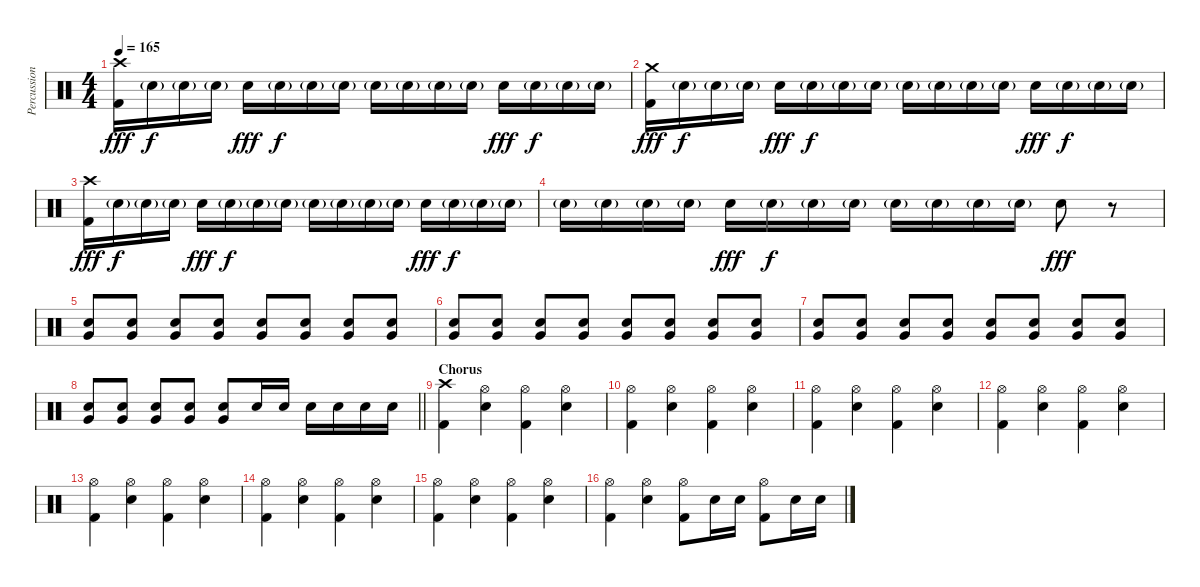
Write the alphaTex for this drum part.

\track ("Percussion" "Percussion") {instrument percussion}
\staff {score}
\articulation defaults
\ts (4 4)
\tempo 165
\clef neutral
\ks c
("Crash high (hit)" "Kick (hit) 2").16{dy fff} "Electric Snare (hit)"{g}.16{dy f} "Electric Snare (hit)"{g}.16 "Electric Snare (hit)"{g}.16 "Electric Snare (hit)".16{dy fff} "Electric Snare (hit)"{g}.16{dy f} "Electric Snare (hit)"{g}.16 "Electric Snare (hit)"{g}.16 "Electric Snare (hit)"{g}.16 "Electric Snare (hit)"{g}.16 "Electric Snare (hit)"{g}.16 "Electric Snare (hit)"{g}.16 "Electric Snare (hit)".16{dy fff} "Electric Snare (hit)"{g}.16{dy f} "Electric Snare (hit)"{g}.16 "Electric Snare (hit)"{g}.16 |
("Crash medium (hit)" "Kick (hit) 2").16{dy fff} "Electric Snare (hit)"{g}.16{dy f} "Electric Snare (hit)"{g}.16 "Electric Snare (hit)"{g}.16 "Electric Snare (hit)".16{dy fff} "Electric Snare (hit)"{g}.16{dy f} "Electric Snare (hit)"{g}.16 "Electric Snare (hit)"{g}.16 "Electric Snare (hit)"{g}.16 "Electric Snare (hit)"{g}.16 "Electric Snare (hit)"{g}.16 "Electric Snare (hit)"{g}.16 "Electric Snare (hit)".16{dy fff} "Electric Snare (hit)"{g}.16{dy f} "Electric Snare (hit)"{g}.16 "Electric Snare (hit)"{g}.16 |
("Crash high (hit)" "Kick (hit) 2").16{dy fff} "Electric Snare (hit)"{g}.16{dy f} "Electric Snare (hit)"{g}.16 "Electric Snare (hit)"{g}.16 "Electric Snare (hit)".16{dy fff} "Electric Snare (hit)"{g}.16{dy f} "Electric Snare (hit)"{g}.16 "Electric Snare (hit)"{g}.16 "Electric Snare (hit)"{g}.16 "Electric Snare (hit)"{g}.16 "Electric Snare (hit)"{g}.16 "Electric Snare (hit)"{g}.16 "Electric Snare (hit)".16{dy fff} "Electric Snare (hit)"{g}.16{dy f} "Electric Snare (hit)"{g}.16 "Electric Snare (hit)"{g}.16 |
"Electric Snare (hit)"{g}.16 "Electric Snare (hit)"{g}.16 "Electric Snare (hit)"{g}.16 "Electric Snare (hit)"{g}.16 "Electric Snare (hit)".16{dy fff} "Electric Snare (hit)"{g}.16{dy f} "Electric Snare (hit)"{g}.16 "Electric Snare (hit)"{g}.16 "Electric Snare (hit)"{g}.16 "Electric Snare (hit)"{g}.16 "Electric Snare (hit)"{g}.16 "Electric Snare (hit)"{g}.16 "Electric Snare (hit)".8{dy fff} r.8{volume 10} |
("Very Low Tom (hit)" "Electric Snare (hit)").8{volume 16} ("Very Low Tom (hit)" "Electric Snare (hit)").8 ("Very Low Tom (hit)" "Electric Snare (hit)").8 ("Very Low Tom (hit)" "Electric Snare (hit)").8 ("Very Low Tom (hit)" "Electric Snare (hit)").8 ("Very Low Tom (hit)" "Electric Snare (hit)").8 ("Very Low Tom (hit)" "Electric Snare (hit)").8 ("Very Low Tom (hit)" "Electric Snare (hit)").8 |
("Very Low Tom (hit)" "Electric Snare (hit)").8 ("Very Low Tom (hit)" "Electric Snare (hit)").8 ("Very Low Tom (hit)" "Electric Snare (hit)").8 ("Very Low Tom (hit)" "Electric Snare (hit)").8 ("Very Low Tom (hit)" "Electric Snare (hit)").8 ("Very Low Tom (hit)" "Electric Snare (hit)").8 ("Very Low Tom (hit)" "Electric Snare (hit)").8 ("Very Low Tom (hit)" "Electric Snare (hit)").8 |
("Very Low Tom (hit)" "Electric Snare (hit)").8 ("Very Low Tom (hit)" "Electric Snare (hit)").8 ("Very Low Tom (hit)" "Electric Snare (hit)").8 ("Very Low Tom (hit)" "Electric Snare (hit)").8 ("Very Low Tom (hit)" "Electric Snare (hit)").8 ("Very Low Tom (hit)" "Electric Snare (hit)").8 ("Very Low Tom (hit)" "Electric Snare (hit)").8 ("Very Low Tom (hit)" "Electric Snare (hit)").8 |
\barLineRight lightlight
("Very Low Tom (hit)" "Electric Snare (hit)").8 ("Very Low Tom (hit)" "Electric Snare (hit)").8 ("Very Low Tom (hit)" "Electric Snare (hit)").8 ("Very Low Tom (hit)" "Electric Snare (hit)").8 ("Very Low Tom (hit)" "Electric Snare (hit)").8 "Electric Snare (hit)".16 "Electric Snare (hit)".16 "Electric Snare (hit)".16 "Electric Snare (hit)".16 "Electric Snare (hit)".16 "Electric Snare (hit)".16 |
\section ("" "Chorus")
("Crash high (hit)" "Kick (hit) 2").4 ("Hi-Hat (open)" "Electric Snare (hit)").4 ("Hi-Hat (open)" "Kick (hit) 2").4 ("Hi-Hat (open)" "Electric Snare (hit)").4 |
("Hi-Hat (open)" "Kick (hit) 2").4 ("Hi-Hat (open)" "Electric Snare (hit)").4 ("Hi-Hat (open)" "Kick (hit) 2").4 ("Hi-Hat (open)" "Electric Snare (hit)").4 |
("Hi-Hat (open)" "Kick (hit) 2").4 ("Hi-Hat (open)" "Electric Snare (hit)").4 ("Hi-Hat (open)" "Kick (hit) 2").4 ("Hi-Hat (open)" "Electric Snare (hit)").4 |
("Hi-Hat (open)" "Kick (hit) 2").4 ("Hi-Hat (open)" "Electric Snare (hit)").4 ("Hi-Hat (open)" "Kick (hit) 2").4 ("Hi-Hat (open)" "Electric Snare (hit)").4 |
("Hi-Hat (open)" "Kick (hit) 2").4 ("Hi-Hat (open)" "Electric Snare (hit)").4 ("Hi-Hat (open)" "Kick (hit) 2").4 ("Hi-Hat (open)" "Electric Snare (hit)").4 |
("Hi-Hat (open)" "Kick (hit) 2").4 ("Hi-Hat (open)" "Electric Snare (hit)").4 ("Hi-Hat (open)" "Kick (hit) 2").4 ("Hi-Hat (open)" "Electric Snare (hit)").4 |
("Hi-Hat (open)" "Kick (hit) 2").4 ("Hi-Hat (open)" "Electric Snare (hit)").4 ("Hi-Hat (open)" "Kick (hit) 2").4 ("Hi-Hat (open)" "Electric Snare (hit)").4 |
("Hi-Hat (open)" "Kick (hit) 2").4 ("Hi-Hat (open)" "Electric Snare (hit)").4 ("Hi-Hat (open)" "Kick (hit) 2").8 "Electric Snare (hit)".16 "Electric Snare (hit)".16 ("Hi-Hat (open)" "Kick (hit) 2").8 "Electric Snare (hit)".16 "Electric Snare (hit)".16
